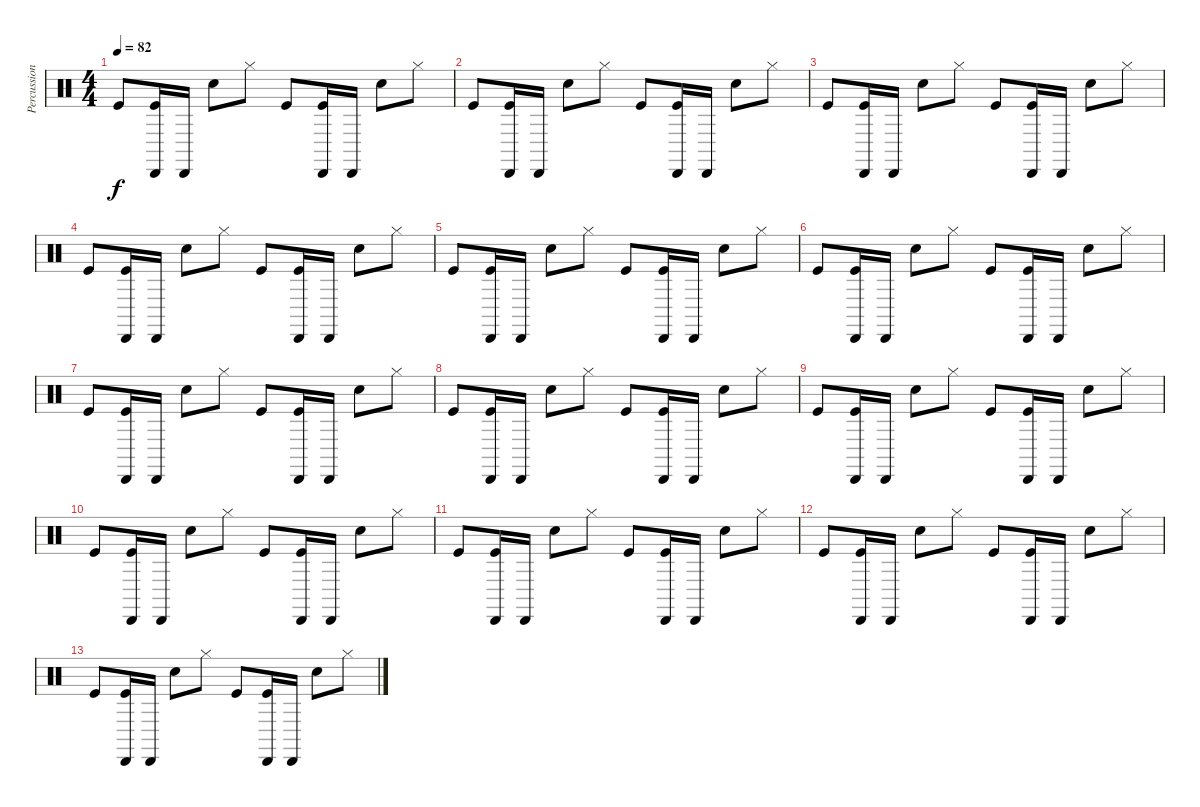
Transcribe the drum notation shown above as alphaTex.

\track ("Percussions" "Percussion") {instrument percussion}
\staff {score}
\articulation defaults
\ts (4 4)
\tempo 82
\clef neutral
\ks c "Kick (hit)".8{dy f}
("Cabasa (hit)" "Kick (hit)").16 "Cabasa (hit)".16 "Electric Snare (hit)".8 "Hi-Hat (closed)".8 "Kick (hit)".8 ("Cabasa (hit)" "Kick (hit)").16 "Cabasa (hit)".16 "Electric Snare (hit)".8 "Hi-Hat (closed)".8 |
"Kick (hit)".8 ("Cabasa (hit)" "Kick (hit)").16 "Cabasa (hit)".16 "Electric Snare (hit)".8 "Hi-Hat (closed)".8 "Kick (hit)".8 ("Cabasa (hit)" "Kick (hit)").16 "Cabasa (hit)".16 "Electric Snare (hit)".8 "Hi-Hat (closed)".8 |
"Kick (hit)".8 ("Cabasa (hit)" "Kick (hit)").16 "Cabasa (hit)".16 "Electric Snare (hit)".8 "Hi-Hat (closed)".8 "Kick (hit)".8 ("Cabasa (hit)" "Kick (hit)").16 "Cabasa (hit)".16 "Electric Snare (hit)".8 "Hi-Hat (closed)".8 |
"Kick (hit)".8 ("Cabasa (hit)" "Kick (hit)").16 "Cabasa (hit)".16 "Electric Snare (hit)".8 "Hi-Hat (closed)".8 "Kick (hit)".8 ("Cabasa (hit)" "Kick (hit)").16 "Cabasa (hit)".16 "Electric Snare (hit)".8 "Hi-Hat (closed)".8 |
"Kick (hit)".8 ("Cabasa (hit)" "Kick (hit)").16 "Cabasa (hit)".16 "Electric Snare (hit)".8 "Hi-Hat (closed)".8 "Kick (hit)".8 ("Cabasa (hit)" "Kick (hit)").16 "Cabasa (hit)".16 "Electric Snare (hit)".8 "Hi-Hat (closed)".8 |
"Kick (hit)".8 ("Cabasa (hit)" "Kick (hit)").16 "Cabasa (hit)".16 "Electric Snare (hit)".8 "Hi-Hat (closed)".8 "Kick (hit)".8 ("Cabasa (hit)" "Kick (hit)").16 "Cabasa (hit)".16 "Electric Snare (hit)".8 "Hi-Hat (closed)".8 |
"Kick (hit)".8{volume 13} ("Cabasa (hit)" "Kick (hit)").16{volume 13} "Cabasa (hit)".16{volume 13} "Electric Snare (hit)".8{volume 13} "Hi-Hat (closed)".8{volume 12} "Kick (hit)".8{volume 12} ("Cabasa (hit)" "Kick (hit)").16{volume 12} "Cabasa (hit)".16{volume 12} "Electric Snare (hit)".8{volume 12} "Hi-Hat (closed)".8{volume 12} |
"Kick (hit)".8{volume 11} ("Cabasa (hit)" "Kick (hit)").16{volume 11} "Cabasa (hit)".16{volume 11} "Electric Snare (hit)".8{volume 11} "Hi-Hat (closed)".8{volume 11} "Kick (hit)".8{volume 10} ("Cabasa (hit)" "Kick (hit)").16{volume 10} "Cabasa (hit)".16{volume 10} "Electric Snare (hit)".8{volume 10} "Hi-Hat (closed)".8{volume 10} |
"Kick (hit)".8{volume 10} ("Cabasa (hit)" "Kick (hit)").16{volume 10} "Cabasa (hit)".16{volume 10} "Electric Snare (hit)".8{volume 9} "Hi-Hat (closed)".8{volume 9} "Kick (hit)".8{volume 9} ("Cabasa (hit)" "Kick (hit)").16{volume 9} "Cabasa (hit)".16{volume 9} "Electric Snare (hit)".8{volume 8} "Hi-Hat (closed)".8{volume 8} |
"Kick (hit)".8{volume 8} ("Cabasa (hit)" "Kick (hit)").16{volume 8} "Cabasa (hit)".16{volume 8} "Electric Snare (hit)".8{volume 8} "Hi-Hat (closed)".8{volume 8} "Kick (hit)".8{volume 8} ("Cabasa (hit)" "Kick (hit)").16{volume 8} "Cabasa (hit)".16{volume 8} "Electric Snare (hit)".8{volume 8} "Hi-Hat (closed)".8{volume 8} |
"Kick (hit)".8{volume 7} ("Cabasa (hit)" "Kick (hit)").16{volume 7} "Cabasa (hit)".16{volume 7} "Electric Snare (hit)".8{volume 7} "Hi-Hat (closed)".8{volume 7} "Kick (hit)".8{volume 7} ("Cabasa (hit)" "Kick (hit)").16{volume 7} "Cabasa (hit)".16{volume 7} "Electric Snare (hit)".8{volume 7} "Hi-Hat (closed)".8{volume 7} |
"Kick (hit)".8{volume 6} ("Cabasa (hit)" "Kick (hit)").16{volume 6} "Cabasa (hit)".16{volume 6} "Electric Snare (hit)".8{volume 6} "Hi-Hat (closed)".8{volume 6} "Kick (hit)".8{volume 6} ("Cabasa (hit)" "Kick (hit)").16{volume 5} "Cabasa (hit)".16{volume 5} "Electric Snare (hit)".8{volume 5} "Hi-Hat (closed)".8{volume 5} |
"Kick (hit)".8{volume 4} ("Cabasa (hit)" "Kick (hit)").16{volume 4} "Cabasa (hit)".16{volume 4} "Electric Snare (hit)".8{volume 4} "Hi-Hat (closed)".8{volume 3} "Kick (hit)".8{volume 3} ("Cabasa (hit)" "Kick (hit)").16{volume 3} "Cabasa (hit)".16{volume 2} "Electric Snare (hit)".8{volume 2} "Hi-Hat (closed)".8{volume 1}
